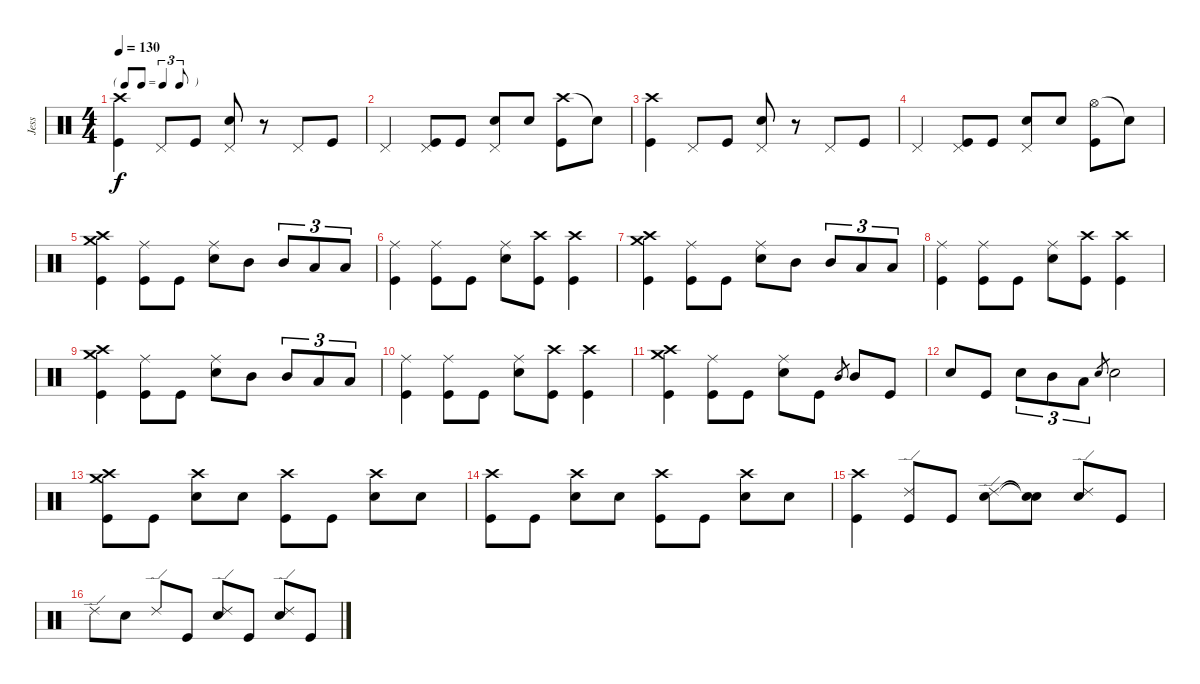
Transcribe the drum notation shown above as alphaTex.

\track ("Jess" "Jess") {instrument percussion}
\staff {score}
\articulation defaults
\ts (4 4)
\tf triplet8th
\tempo 130
\clef neutral
\ks c
("Crash high (hit)" "Kick (hit)").4{dy f} "Pedal Hi-Hat (hit)".8 "Kick (hit)".8 ("Pedal Hi-Hat (hit)" "Snare (hit) 2").8 r.8 "Pedal Hi-Hat (hit)".8 "Kick (hit)".8 |
"Pedal Hi-Hat (hit)".4 ("Pedal Hi-Hat (hit)" "Kick (hit)").8 "Kick (hit)".8 ("Pedal Hi-Hat (hit)" "Snare (hit) 2").8 "Snare (hit) 2".8 ("Crash high (hit)" "Kick (hit)").8 "Snare (hit)"{t}.8 |
("Crash high (hit)" "Kick (hit)").4 "Pedal Hi-Hat (hit)".8 "Kick (hit)".8 ("Pedal Hi-Hat (hit)" "Snare (hit) 2").8 r.8 "Pedal Hi-Hat (hit)".8 "Kick (hit)".8 |
"Pedal Hi-Hat (hit)".4 ("Pedal Hi-Hat (hit)" "Kick (hit)").8 "Kick (hit)".8 ("Pedal Hi-Hat (hit)" "Snare (hit) 2").8 "Snare (hit) 2".8 ("Hi-Hat (open)" "Kick (hit)").8 "Snare (hit)"{t}.8 |
("Crash high (hit)" "Crash medium (hit)" "Kick (hit)").4 ("Ride (middle)" "Kick (hit)").8 "Kick (hit)".8 ("Ride (middle)" "Snare (hit) 2").8 "Mid Tom (hit)".8 "Mid Tom (hit)".8{tu (3 2)} "Low Tom (hit)".8{tu (3 2)} "Low Tom (hit)".8{tu (3 2)} |
("Ride (middle)" "Kick (hit)").4 ("Ride (middle)" "Kick (hit)").8 "Kick (hit)".8 ("Ride (middle)" "Snare (hit) 2").8 ("Crash high (hit)" "Kick (hit)").8 ("Crash high (hit)" "Kick (hit)").4 |
("Crash high (hit)" "Crash medium (hit)" "Kick (hit)").4 ("Ride (middle)" "Kick (hit)").8 "Kick (hit)".8 ("Ride (middle)" "Snare (hit) 2").8 "Mid Tom (hit)".8 "Mid Tom (hit)".8{tu (3 2)} "Low Tom (hit)".8{tu (3 2)} "Low Tom (hit)".8{tu (3 2)} |
("Ride (middle)" "Kick (hit)").4 ("Ride (middle)" "Kick (hit)").8 "Kick (hit)".8 ("Ride (middle)" "Snare (hit) 2").8 ("Crash high (hit)" "Kick (hit)").8 ("Crash high (hit)" "Kick (hit)").4 |
("Crash high (hit)" "Crash medium (hit)" "Kick (hit)").4 ("Ride (middle)" "Kick (hit)").8 "Kick (hit)".8 ("Ride (middle)" "Snare (hit) 2").8 "Mid Tom (hit)".8 "Mid Tom (hit)".8{tu (3 2)} "Low Tom (hit)".8{tu (3 2)} "Low Tom (hit)".8{tu (3 2)} |
("Ride (middle)" "Kick (hit)").4 ("Ride (middle)" "Kick (hit)").8 "Kick (hit)".8 ("Ride (middle)" "Snare (hit) 2").8 ("Crash high (hit)" "Kick (hit)").8 ("Crash high (hit)" "Kick (hit)").4 |
("Crash high (hit)" "Crash medium (hit)" "Kick (hit)").4 ("Ride (middle)" "Kick (hit)").8 "Kick (hit)".8 ("Ride (middle)" "Snare (hit) 2").8 "Kick (hit)".8 "Mid Tom (hit)".8{gr} "Mid Tom (hit)".8 "Kick (hit)".8 |
"Snare (hit) 2".8 "Kick (hit)".8 "Snare (hit) 2".8{tu (3 2)} "Mid Tom (hit)".8{tu (3 2)} "Low Tom (hit)".8{tu (3 2)} "Snare (hit) 2".8{gr} "Snare (hit) 2".2 |
("Crash high (hit)" "Crash medium (hit)" "Kick (hit)").8 "Kick (hit)".8 ("Crash high (hit)" "Snare (hit) 2").8 "Snare (hit) 2".8 ("Crash high (hit)" "Kick (hit)").8 "Kick (hit)".8 ("Crash high (hit)" "Snare (hit) 2").8 "Snare (hit) 2".8 |
("Crash high (hit)" "Kick (hit)").8 "Kick (hit)".8 ("Crash high (hit)" "Snare (hit) 2").8 "Snare (hit) 2".8 ("Crash high (hit)" "Kick (hit)").8 "Kick (hit)".8 ("Crash high (hit)" "Snare (hit) 2").8 "Snare (hit) 2".8 |
("Crash high (hit)" "Kick (hit)").4 ("Ride (edge) 2" "Kick (hit)").8 "Kick (hit)".8 ("Ride (edge) 2" "Snare (hit) 2").8 ("Snare (hit)"{t} "Snare (hit)"{t}).8 ("Ride (edge) 2" "Snare (hit) 2").8 "Kick (hit)".8 |
"Ride (edge) 2".8 "Snare (hit) 2".8 "Ride (edge) 2".8 "Kick (hit)".8 ("Ride (edge) 2" "Snare (hit) 2").8 "Kick (hit)".8 ("Ride (edge) 2" "Snare (hit) 2").8 "Kick (hit)".8
